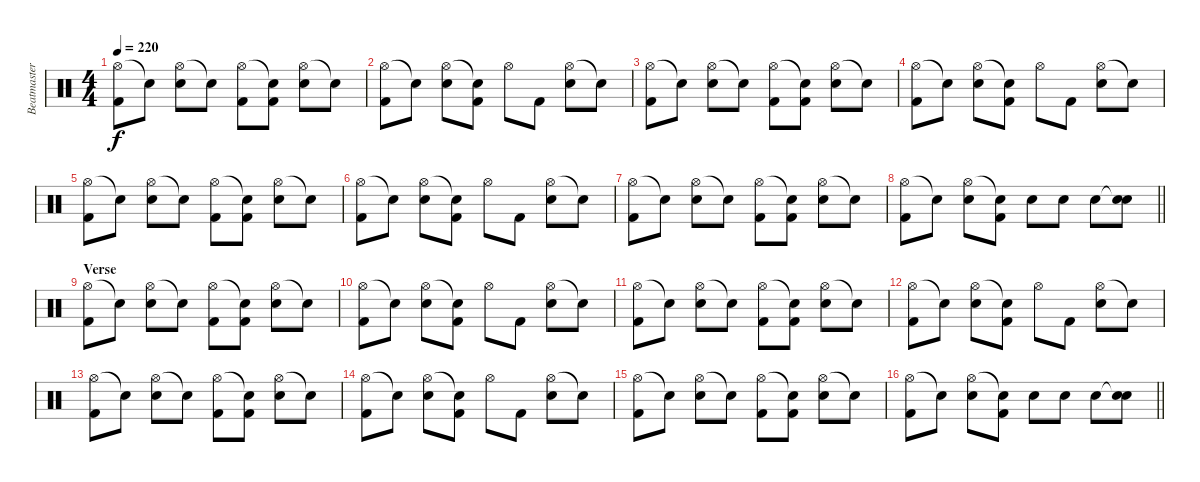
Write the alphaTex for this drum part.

\track ("Beatmaster V" "Beatmaster") {instrument percussion}
\staff {score}
\articulation defaults
\ts (4 4)
\tempo 220
\clef neutral
\ks c
("Hi-Hat (open)" "Kick (hit) 2").8{dy f} "Snare (hit)"{t}.8 ("Hi-Hat (open)" "Snare (hit) 2").8 "Snare (hit)"{t}.8 ("Hi-Hat (open)" "Kick (hit) 2").8 ("Snare (hit)"{t} "Kick (hit) 2").8 ("Hi-Hat (open)" "Snare (hit) 2").8 "Snare (hit)"{t}.8 |
("Hi-Hat (open)" "Kick (hit) 2").8 "Snare (hit)"{t}.8 ("Hi-Hat (open)" "Snare (hit) 2").8 ("Snare (hit)"{t} "Kick (hit) 2").8 "Hi-Hat (open)".8 "Kick (hit) 2".8 ("Hi-Hat (open)" "Snare (hit) 2").8 "Snare (hit)"{t}.8 |
("Hi-Hat (open)" "Kick (hit) 2").8 "Snare (hit)"{t}.8 ("Hi-Hat (open)" "Snare (hit) 2").8 "Snare (hit)"{t}.8 ("Hi-Hat (open)" "Kick (hit) 2").8 ("Snare (hit)"{t} "Kick (hit) 2").8 ("Hi-Hat (open)" "Snare (hit) 2").8 "Snare (hit)"{t}.8 |
("Hi-Hat (open)" "Kick (hit) 2").8 "Snare (hit)"{t}.8 ("Hi-Hat (open)" "Snare (hit) 2").8 ("Snare (hit)"{t} "Kick (hit) 2").8 "Hi-Hat (open)".8 "Kick (hit) 2".8 ("Hi-Hat (open)" "Snare (hit) 2").8 "Snare (hit)"{t}.8 |
("Hi-Hat (open)" "Kick (hit) 2").8 "Snare (hit)"{t}.8 ("Hi-Hat (open)" "Snare (hit) 2").8 "Snare (hit)"{t}.8 ("Hi-Hat (open)" "Kick (hit) 2").8 ("Snare (hit)"{t} "Kick (hit) 2").8 ("Hi-Hat (open)" "Snare (hit) 2").8 "Snare (hit)"{t}.8 |
("Hi-Hat (open)" "Kick (hit) 2").8 "Snare (hit)"{t}.8 ("Hi-Hat (open)" "Snare (hit) 2").8 ("Snare (hit)"{t} "Kick (hit) 2").8 "Hi-Hat (open)".8 "Kick (hit) 2".8 ("Hi-Hat (open)" "Snare (hit) 2").8 "Snare (hit)"{t}.8 |
("Hi-Hat (open)" "Kick (hit) 2").8 "Snare (hit)"{t}.8 ("Hi-Hat (open)" "Snare (hit) 2").8 "Snare (hit)"{t}.8 ("Hi-Hat (open)" "Kick (hit) 2").8 ("Snare (hit)"{t} "Kick (hit) 2").8 ("Hi-Hat (open)" "Snare (hit) 2").8 "Snare (hit)"{t}.8 |
\barLineRight lightlight
("Hi-Hat (open)" "Kick (hit) 2").8 "Snare (hit)"{t}.8 ("Hi-Hat (open)" "Snare (hit) 2").8 ("Snare (hit)"{t} "Kick (hit) 2").8 "Snare (hit) 2".8 "Snare (hit) 2".8 "Snare (hit) 2".8 ("Snare (hit)"{t} "Snare (hit) 2").8 |
\section ("" "Verse")
("Hi-Hat (open)" "Kick (hit) 2").8 "Snare (hit)"{t}.8 ("Hi-Hat (open)" "Snare (hit) 2").8 "Snare (hit)"{t}.8 ("Hi-Hat (open)" "Kick (hit) 2").8 ("Snare (hit)"{t} "Kick (hit) 2").8 ("Hi-Hat (open)" "Snare (hit) 2").8 "Snare (hit)"{t}.8 |
("Hi-Hat (open)" "Kick (hit) 2").8 "Snare (hit)"{t}.8 ("Hi-Hat (open)" "Snare (hit) 2").8 ("Snare (hit)"{t} "Kick (hit) 2").8 "Hi-Hat (open)".8 "Kick (hit) 2".8 ("Hi-Hat (open)" "Snare (hit) 2").8 "Snare (hit)"{t}.8 |
("Hi-Hat (open)" "Kick (hit) 2").8 "Snare (hit)"{t}.8 ("Hi-Hat (open)" "Snare (hit) 2").8 "Snare (hit)"{t}.8 ("Hi-Hat (open)" "Kick (hit) 2").8 ("Snare (hit)"{t} "Kick (hit) 2").8 ("Hi-Hat (open)" "Snare (hit) 2").8 "Snare (hit)"{t}.8 |
("Hi-Hat (open)" "Kick (hit) 2").8 "Snare (hit)"{t}.8 ("Hi-Hat (open)" "Snare (hit) 2").8 ("Snare (hit)"{t} "Kick (hit) 2").8 "Hi-Hat (open)".8 "Kick (hit) 2".8 ("Hi-Hat (open)" "Snare (hit) 2").8 "Snare (hit)"{t}.8 |
("Hi-Hat (open)" "Kick (hit) 2").8 "Snare (hit)"{t}.8 ("Hi-Hat (open)" "Snare (hit) 2").8 "Snare (hit)"{t}.8 ("Hi-Hat (open)" "Kick (hit) 2").8 ("Snare (hit)"{t} "Kick (hit) 2").8 ("Hi-Hat (open)" "Snare (hit) 2").8 "Snare (hit)"{t}.8 |
("Hi-Hat (open)" "Kick (hit) 2").8 "Snare (hit)"{t}.8 ("Hi-Hat (open)" "Snare (hit) 2").8 ("Snare (hit)"{t} "Kick (hit) 2").8 "Hi-Hat (open)".8 "Kick (hit) 2".8 ("Hi-Hat (open)" "Snare (hit) 2").8 "Snare (hit)"{t}.8 |
("Hi-Hat (open)" "Kick (hit) 2").8 "Snare (hit)"{t}.8 ("Hi-Hat (open)" "Snare (hit) 2").8 "Snare (hit)"{t}.8 ("Hi-Hat (open)" "Kick (hit) 2").8 ("Snare (hit)"{t} "Kick (hit) 2").8 ("Hi-Hat (open)" "Snare (hit) 2").8 "Snare (hit)"{t}.8 |
\barLineRight lightlight
("Hi-Hat (open)" "Kick (hit) 2").8 "Snare (hit)"{t}.8 ("Hi-Hat (open)" "Snare (hit) 2").8 ("Snare (hit)"{t} "Kick (hit) 2").8 "Snare (hit) 2".8 "Snare (hit) 2".8 "Snare (hit) 2".8 ("Snare (hit)"{t} "Snare (hit) 2").8
